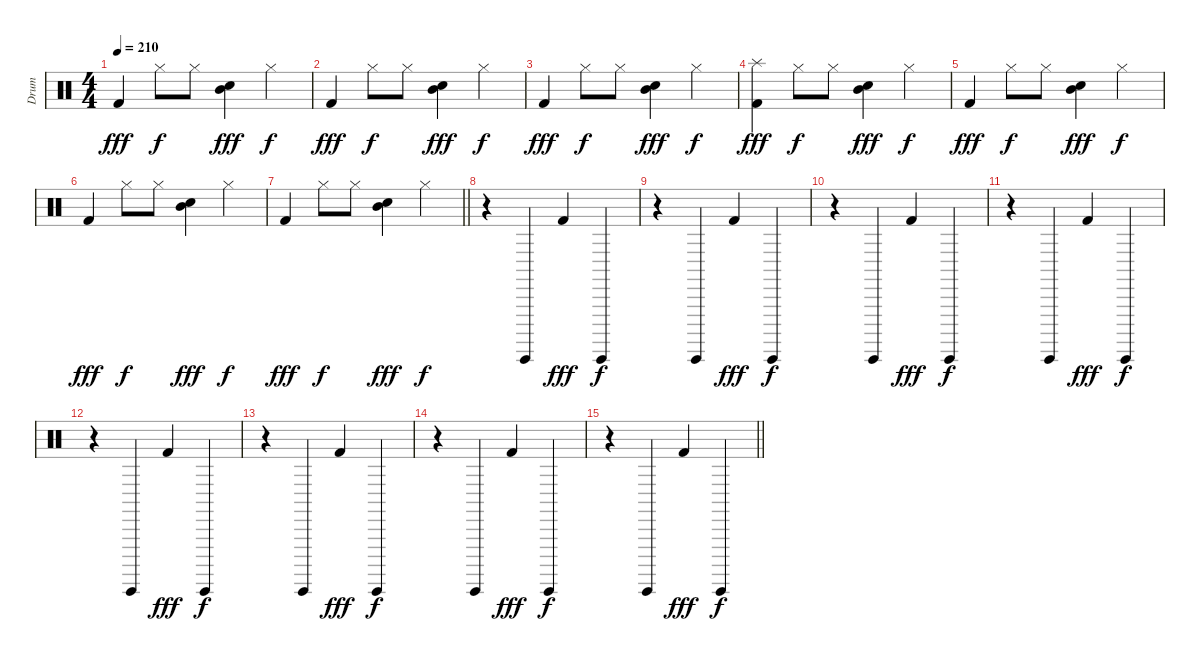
\track ("Drum" "Drum") {instrument percussion}
\staff {score}
\articulation defaults
\ts (4 4)
\tempo 210
\clef neutral
\ks c "Kick (hit) 2".4{dy fff} "Hi-Hat (closed)".8{dy f} "Hi-Hat (closed)".8
("Snare (hit) 2" "Mid Tom (hit)").4{dy fff} "Hi-Hat (closed)".4{dy f} |
"Kick (hit) 2".4{dy fff} "Hi-Hat (closed)".8{dy f} "Hi-Hat (closed)".8 ("Snare (hit) 2" "Mid Tom (hit)").4{dy fff} "Hi-Hat (closed)".4{dy f} |
"Kick (hit) 2".4{dy fff} "Hi-Hat (closed)".8{dy f} "Hi-Hat (closed)".8 ("Snare (hit) 2" "Mid Tom (hit)").4{dy fff} "Hi-Hat (closed)".4{dy f} |
("Kick (hit) 2" "Splash (hit)").4{dy fff} "Hi-Hat (closed)".8{dy f} "Hi-Hat (closed)".8 ("Snare (hit) 2" "Mid Tom (hit)").4{dy fff} "Hi-Hat (closed)".4{dy f} |
"Kick (hit) 2".4{dy fff} "Hi-Hat (closed)".8{dy f} "Hi-Hat (closed)".8 ("Snare (hit) 2" "Mid Tom (hit)").4{dy fff} "Hi-Hat (closed)".4{dy f} |
"Kick (hit) 2".4{dy fff} "Hi-Hat (closed)".8{dy f} "Hi-Hat (closed)".8 ("Snare (hit) 2" "Mid Tom (hit)").4{dy fff} "Hi-Hat (closed)".4{dy f} |
\barLineRight lightlight "Kick (hit) 2".4{dy fff} "Hi-Hat (closed)".8{dy f} "Hi-Hat (closed)".8
("Snare (hit) 2" "Mid Tom (hit)").4{dy fff} "Hi-Hat (closed)".4{dy f} |
r.4 "Guiro (hit)".4 "Kick (hit) 2".4{dy fff} "Guiro (hit)".4{dy f} |
r.4 "Guiro (hit)".4 "Kick (hit) 2".4{dy fff} "Guiro (hit)".4{dy f} |
r.4 "Guiro (hit)".4 "Kick (hit) 2".4{dy fff} "Guiro (hit)".4{dy f} |
r.4 "Guiro (hit)".4 "Kick (hit) 2".4{dy fff} "Guiro (hit)".4{dy f} |
r.4 "Guiro (hit)".4 "Kick (hit) 2".4{dy fff} "Guiro (hit)".4{dy f} |
r.4 "Guiro (hit)".4 "Kick (hit) 2".4{dy fff} "Guiro (hit)".4{dy f} |
r.4 "Guiro (hit)".4 "Kick (hit) 2".4{dy fff} "Guiro (hit)".4{dy f} |
\barLineRight lightlight
r.4 "Guiro (hit)".4 "Kick (hit) 2".4{dy fff} "Guiro (hit)".4{dy f}
